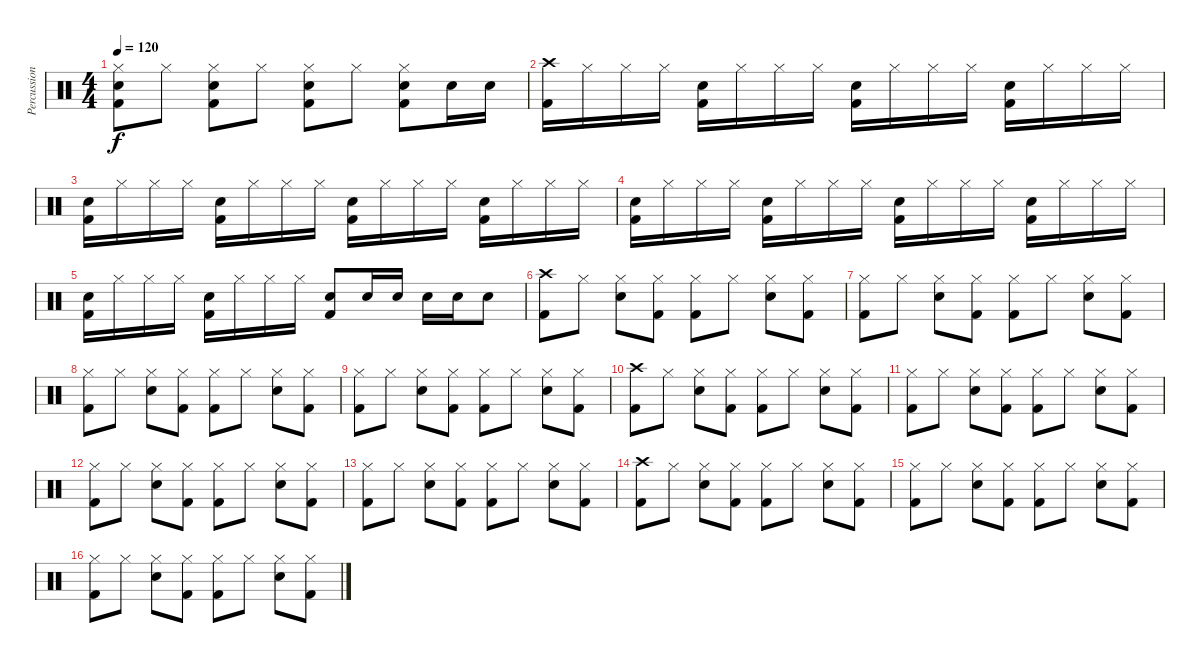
\track ("Percussion" "Percussion") {instrument percussion}
\staff {score}
\articulation defaults
\ts (4 4)
\tempo 120
\clef neutral
\ks c
("Hi-Hat (closed)" "Snare (hit) 2" "Kick (hit) 2").8{dy f} "Hi-Hat (closed)".8 ("Hi-Hat (closed)" "Snare (hit) 2" "Kick (hit) 2").8 "Hi-Hat (closed)".8 ("Hi-Hat (closed)" "Snare (hit) 2" "Kick (hit) 2").8 "Hi-Hat (closed)".8 ("Hi-Hat (closed)" "Snare (hit) 2" "Kick (hit) 2").8 "Snare (hit) 2".16 "Snare (hit) 2".16 |
("Crash high (hit)" "Kick (hit) 2").16 "Hi-Hat (closed)".16 "Hi-Hat (closed)".16 "Hi-Hat (closed)".16 ("Snare (hit) 2" "Kick (hit) 2").16 "Hi-Hat (closed)".16 "Hi-Hat (closed)".16 "Hi-Hat (closed)".16 ("Snare (hit) 2" "Kick (hit) 2").16 "Hi-Hat (closed)".16 "Hi-Hat (closed)".16 "Hi-Hat (closed)".16 ("Snare (hit) 2" "Kick (hit) 2").16 "Hi-Hat (closed)".16 "Hi-Hat (closed)".16 "Hi-Hat (closed)".16 |
("Snare (hit) 2" "Kick (hit) 2").16 "Hi-Hat (closed)".16 "Hi-Hat (closed)".16 "Hi-Hat (closed)".16 ("Snare (hit) 2" "Kick (hit) 2").16 "Hi-Hat (closed)".16 "Hi-Hat (closed)".16 "Hi-Hat (closed)".16 ("Snare (hit) 2" "Kick (hit) 2").16 "Hi-Hat (closed)".16 "Hi-Hat (closed)".16 "Hi-Hat (closed)".16 ("Snare (hit) 2" "Kick (hit) 2").16 "Hi-Hat (closed)".16 "Hi-Hat (closed)".16 "Hi-Hat (closed)".16 |
("Snare (hit) 2" "Kick (hit) 2").16 "Hi-Hat (closed)".16 "Hi-Hat (closed)".16 "Hi-Hat (closed)".16 ("Snare (hit) 2" "Kick (hit) 2").16 "Hi-Hat (closed)".16 "Hi-Hat (closed)".16 "Hi-Hat (closed)".16 ("Snare (hit) 2" "Kick (hit) 2").16 "Hi-Hat (closed)".16 "Hi-Hat (closed)".16 "Hi-Hat (closed)".16 ("Snare (hit) 2" "Kick (hit) 2").16 "Hi-Hat (closed)".16 "Hi-Hat (closed)".16 "Hi-Hat (closed)".16 |
("Snare (hit) 2" "Kick (hit) 2").16 "Hi-Hat (closed)".16 "Hi-Hat (closed)".16 "Hi-Hat (closed)".16 ("Snare (hit) 2" "Kick (hit) 2").16 "Hi-Hat (closed)".16 "Hi-Hat (closed)".16 "Hi-Hat (closed)".16 ("Snare (hit) 2" "Kick (hit) 2").8 "Snare (hit) 2".16 "Snare (hit) 2".16 "Snare (hit) 2".16 "Snare (hit) 2".16 "Snare (hit) 2".8 |
("Crash high (hit)" "Kick (hit) 2").8 "Hi-Hat (closed)".8 ("Hi-Hat (closed)" "Snare (hit) 2").8 ("Hi-Hat (closed)" "Kick (hit) 2").8 ("Hi-Hat (closed)" "Kick (hit) 2").8 "Hi-Hat (closed)".8 ("Hi-Hat (closed)" "Snare (hit) 2").8 ("Hi-Hat (closed)" "Kick (hit) 2").8 |
("Hi-Hat (closed)" "Kick (hit) 2").8 "Hi-Hat (closed)".8 ("Hi-Hat (closed)" "Snare (hit) 2").8 ("Hi-Hat (closed)" "Kick (hit) 2").8 ("Hi-Hat (closed)" "Kick (hit) 2").8 "Hi-Hat (closed)".8 ("Hi-Hat (closed)" "Snare (hit) 2").8 ("Hi-Hat (closed)" "Kick (hit) 2").8 |
("Hi-Hat (closed)" "Kick (hit) 2").8 "Hi-Hat (closed)".8 ("Hi-Hat (closed)" "Snare (hit) 2").8 ("Hi-Hat (closed)" "Kick (hit) 2").8 ("Hi-Hat (closed)" "Kick (hit) 2").8 "Hi-Hat (closed)".8 ("Hi-Hat (closed)" "Snare (hit) 2").8 ("Hi-Hat (closed)" "Kick (hit) 2").8 |
("Hi-Hat (closed)" "Kick (hit) 2").8 "Hi-Hat (closed)".8 ("Hi-Hat (closed)" "Snare (hit) 2").8 ("Hi-Hat (closed)" "Kick (hit) 2").8 ("Hi-Hat (closed)" "Kick (hit) 2").8 "Hi-Hat (closed)".8 ("Hi-Hat (closed)" "Snare (hit) 2").8 ("Hi-Hat (closed)" "Kick (hit) 2").8 |
("Crash high (hit)" "Kick (hit) 2").8 "Hi-Hat (closed)".8 ("Hi-Hat (closed)" "Snare (hit) 2").8 ("Hi-Hat (closed)" "Kick (hit) 2").8 ("Hi-Hat (closed)" "Kick (hit) 2").8 "Hi-Hat (closed)".8 ("Hi-Hat (closed)" "Snare (hit) 2").8 ("Hi-Hat (closed)" "Kick (hit) 2").8 |
("Hi-Hat (closed)" "Kick (hit) 2").8 "Hi-Hat (closed)".8 ("Hi-Hat (closed)" "Snare (hit) 2").8 ("Hi-Hat (closed)" "Kick (hit) 2").8 ("Hi-Hat (closed)" "Kick (hit) 2").8 "Hi-Hat (closed)".8 ("Hi-Hat (closed)" "Snare (hit) 2").8 ("Hi-Hat (closed)" "Kick (hit) 2").8 |
("Hi-Hat (closed)" "Kick (hit) 2").8 "Hi-Hat (closed)".8 ("Hi-Hat (closed)" "Snare (hit) 2").8 ("Hi-Hat (closed)" "Kick (hit) 2").8 ("Hi-Hat (closed)" "Kick (hit) 2").8 "Hi-Hat (closed)".8 ("Hi-Hat (closed)" "Snare (hit) 2").8 ("Hi-Hat (closed)" "Kick (hit) 2").8 |
("Hi-Hat (closed)" "Kick (hit) 2").8 "Hi-Hat (closed)".8 ("Hi-Hat (closed)" "Snare (hit) 2").8 ("Hi-Hat (closed)" "Kick (hit) 2").8 ("Hi-Hat (closed)" "Kick (hit) 2").8 "Hi-Hat (closed)".8 ("Hi-Hat (closed)" "Snare (hit) 2").8 ("Hi-Hat (closed)" "Kick (hit) 2").8 |
("Crash high (hit)" "Kick (hit) 2").8 "Hi-Hat (closed)".8 ("Hi-Hat (closed)" "Snare (hit) 2").8 ("Hi-Hat (closed)" "Kick (hit) 2").8 ("Hi-Hat (closed)" "Kick (hit) 2").8 "Hi-Hat (closed)".8 ("Hi-Hat (closed)" "Snare (hit) 2").8 ("Hi-Hat (closed)" "Kick (hit) 2").8 |
("Hi-Hat (closed)" "Kick (hit) 2").8 "Hi-Hat (closed)".8 ("Hi-Hat (closed)" "Snare (hit) 2").8 ("Hi-Hat (closed)" "Kick (hit) 2").8 ("Hi-Hat (closed)" "Kick (hit) 2").8 "Hi-Hat (closed)".8 ("Hi-Hat (closed)" "Snare (hit) 2").8 ("Hi-Hat (closed)" "Kick (hit) 2").8 |
("Hi-Hat (closed)" "Kick (hit) 2").8 "Hi-Hat (closed)".8 ("Hi-Hat (closed)" "Snare (hit) 2").8 ("Hi-Hat (closed)" "Kick (hit) 2").8 ("Hi-Hat (closed)" "Kick (hit) 2").8 "Hi-Hat (closed)".8 ("Hi-Hat (closed)" "Snare (hit) 2").8 ("Hi-Hat (closed)" "Kick (hit) 2").8
